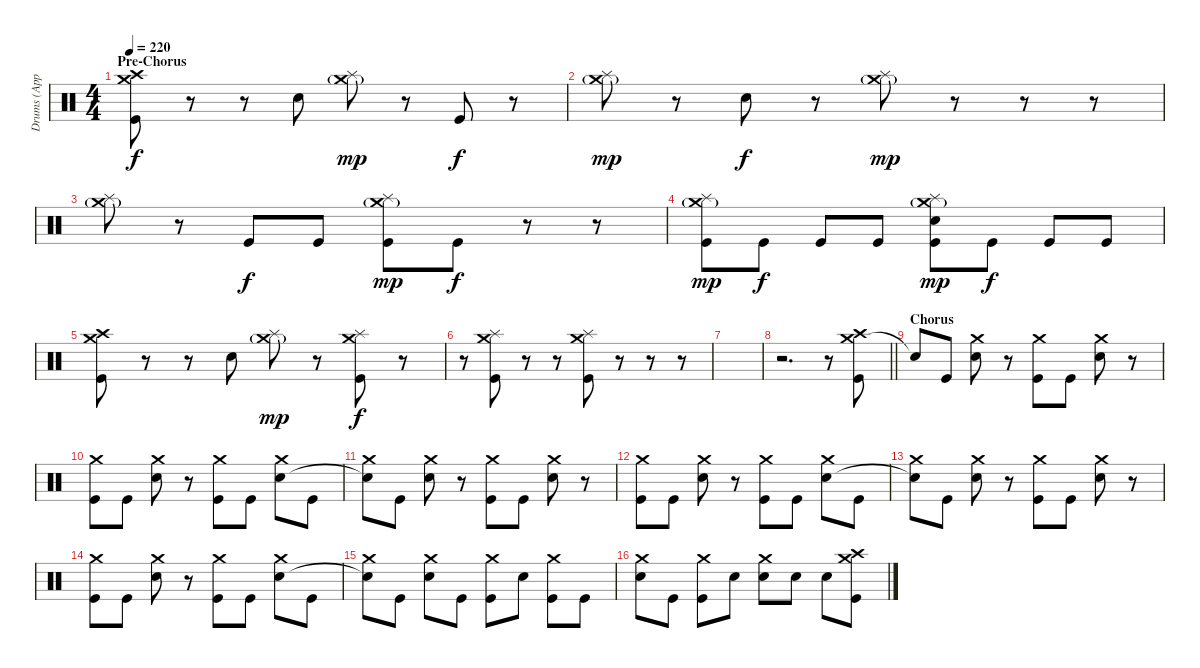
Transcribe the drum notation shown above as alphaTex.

\track ("Drums (Approx.)" "Drums (App") {instrument percussion}
\staff {score}
\articulation defaults
\ts (4 4)
\section ("" "Pre-Chorus")
\tempo 220
\clef neutral
\ks c
("Crash medium (hit)" "Crash high (hit)" "Kick (hit)").8{dy f} r.8 r.8 "Electric Snare (hit)".8 ("Crash medium (hit)"{g} "Splash (hit)").8{dy mp} r.8 "Kick (hit)".8{dy f} r.8 |
("Crash medium (hit)"{g} "Splash (hit)").8{dy mp} r.8 "Electric Snare (hit)".8{dy f} r.8 ("Crash medium (hit)"{g} "Splash (hit)").8{dy mp} r.8 r.8 r.8 |
("Crash medium (hit)"{g} "Splash (hit)").8 r.8 "Kick (hit)".8{dy f} "Kick (hit)".8 ("Crash medium (hit)"{g} "Splash (hit)" "Kick (hit)").8{dy mp} "Kick (hit)".8{dy f} r.8 r.8 |
("Crash medium (hit)"{g} "Splash (hit)" "Kick (hit)").8{dy mp} "Kick (hit)".8{dy f} "Kick (hit)".8 "Kick (hit)".8 ("Crash medium (hit)"{g} "Splash (hit)" "Electric Snare (hit)" "Kick (hit)").8{dy mp} "Kick (hit)".8{dy f} "Kick (hit)".8 "Kick (hit)".8 |
("Crash medium (hit)" "Crash high (hit)" "Kick (hit)").8 r.8 r.8 "Electric Snare (hit)".8 ("Crash medium (hit)"{g} "Splash (hit)").8{dy mp} r.8 ("Crash medium (hit)" "Splash (hit)" "Kick (hit)").8{dy f} r.8 |
r.8 ("Crash medium (hit)" "Splash (hit)" "Kick (hit)").8 r.8 r.8 ("Crash medium (hit)" "Splash (hit)" "Kick (hit)").8 r.8 r.8 r.8 |
|
\barLineRight lightlight
r.2{d} r.8 ("Crash medium (hit)" "Crash high (hit)" "Kick (hit)").8 |
\section ("" "Chorus")
"Snare (hit)"{t}.8 "Kick (hit)".8 ("Crash medium (hit)" "Electric Snare (hit)").8 r.8 ("Crash medium (hit)" "Kick (hit)").8 "Kick (hit)".8 ("Crash medium (hit)" "Electric Snare (hit)").8 r.8 |
("Crash medium (hit)" "Kick (hit)").8 "Kick (hit)".8 ("Crash medium (hit)" "Electric Snare (hit)").8 r.8 ("Crash medium (hit)" "Kick (hit)").8 "Kick (hit)".8 ("Crash medium (hit)" "Electric Snare (hit)").8 "Kick (hit)".8 |
("Crash medium (hit)" "Snare (hit)"{t}).8 "Kick (hit)".8 ("Crash medium (hit)" "Electric Snare (hit)").8 r.8 ("Crash medium (hit)" "Kick (hit)").8 "Kick (hit)".8 ("Crash medium (hit)" "Electric Snare (hit)").8 r.8 |
("Crash medium (hit)" "Kick (hit)").8 "Kick (hit)".8 ("Crash medium (hit)" "Electric Snare (hit)").8 r.8 ("Crash medium (hit)" "Kick (hit)").8 "Kick (hit)".8 ("Crash medium (hit)" "Electric Snare (hit)").8 "Kick (hit)".8 |
("Crash medium (hit)" "Snare (hit)"{t}).8 "Kick (hit)".8 ("Crash medium (hit)" "Electric Snare (hit)").8 r.8 ("Crash medium (hit)" "Kick (hit)").8 "Kick (hit)".8 ("Crash medium (hit)" "Electric Snare (hit)").8 r.8 |
("Crash medium (hit)" "Kick (hit)").8 "Kick (hit)".8 ("Crash medium (hit)" "Electric Snare (hit)").8 r.8 ("Crash medium (hit)" "Kick (hit)").8 "Kick (hit)".8 ("Crash medium (hit)" "Electric Snare (hit)").8 "Kick (hit)".8 |
("Crash medium (hit)" "Snare (hit)"{t}).8 "Kick (hit)".8 ("Crash medium (hit)" "Electric Snare (hit)").8 "Kick (hit)".8 ("Crash medium (hit)" "Kick (hit)").8 "Electric Snare (hit)".8 ("Crash medium (hit)" "Kick (hit)").8 "Kick (hit)".8 |
("Crash medium (hit)" "Electric Snare (hit)").8 "Kick (hit)".8 ("Crash medium (hit)" "Kick (hit)").8 "Electric Snare (hit)".8 ("Crash medium (hit)" "Electric Snare (hit)").8 "Electric Snare (hit)".8 "Electric Snare (hit)".8 ("Crash medium (hit)" "Crash high (hit)" "Kick (hit)").8
